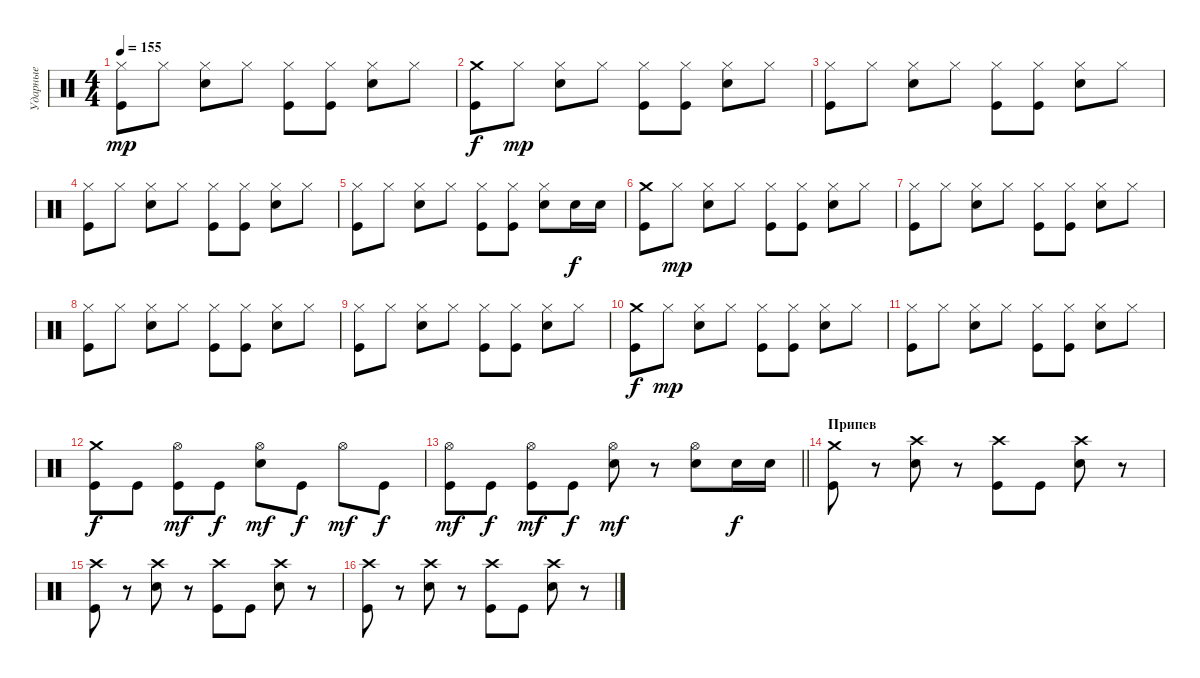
\track ("Ударные" "Ударные") {instrument percussion}
\staff {score}
\articulation defaults
\ts (4 4)
\tempo 155
\clef neutral
\ks c
("Hi-Hat (closed)" "Kick (hit)").8{dy mp} "Hi-Hat (closed)".8 ("Hi-Hat (closed)" "Electric Snare (hit)").8 "Hi-Hat (closed)".8 ("Hi-Hat (closed)" "Kick (hit)").8 ("Hi-Hat (closed)" "Kick (hit)").8 ("Hi-Hat (closed)" "Electric Snare (hit)").8 "Hi-Hat (closed)".8 |
("Crash medium (hit)" "Kick (hit)").8{dy f} "Hi-Hat (closed)".8{dy mp} ("Hi-Hat (closed)" "Electric Snare (hit)").8 "Hi-Hat (closed)".8 ("Hi-Hat (closed)" "Kick (hit)").8 ("Hi-Hat (closed)" "Kick (hit)").8 ("Hi-Hat (closed)" "Electric Snare (hit)").8 "Hi-Hat (closed)".8 |
("Hi-Hat (closed)" "Kick (hit)").8 "Hi-Hat (closed)".8 ("Hi-Hat (closed)" "Electric Snare (hit)").8 "Hi-Hat (closed)".8 ("Hi-Hat (closed)" "Kick (hit)").8 ("Hi-Hat (closed)" "Kick (hit)").8 ("Hi-Hat (closed)" "Electric Snare (hit)").8 "Hi-Hat (closed)".8 |
("Hi-Hat (closed)" "Kick (hit)").8 "Hi-Hat (closed)".8 ("Hi-Hat (closed)" "Electric Snare (hit)").8 "Hi-Hat (closed)".8 ("Hi-Hat (closed)" "Kick (hit)").8 ("Hi-Hat (closed)" "Kick (hit)").8 ("Hi-Hat (closed)" "Electric Snare (hit)").8 "Hi-Hat (closed)".8 |
("Hi-Hat (closed)" "Kick (hit)").8 "Hi-Hat (closed)".8 ("Hi-Hat (closed)" "Electric Snare (hit)").8 "Hi-Hat (closed)".8 ("Hi-Hat (closed)" "Kick (hit)").8 ("Hi-Hat (closed)" "Kick (hit)").8 ("Hi-Hat (closed)" "Electric Snare (hit)").8 "Electric Snare (hit)".16{dy f} "Electric Snare (hit)".16 |
("Crash medium (hit)" "Kick (hit)").8 "Hi-Hat (closed)".8{dy mp} ("Hi-Hat (closed)" "Electric Snare (hit)").8 "Hi-Hat (closed)".8 ("Hi-Hat (closed)" "Kick (hit)").8 ("Hi-Hat (closed)" "Kick (hit)").8 ("Hi-Hat (closed)" "Electric Snare (hit)").8 "Hi-Hat (closed)".8 |
("Hi-Hat (closed)" "Kick (hit)").8 "Hi-Hat (closed)".8 ("Hi-Hat (closed)" "Electric Snare (hit)").8 "Hi-Hat (closed)".8 ("Hi-Hat (closed)" "Kick (hit)").8 ("Hi-Hat (closed)" "Kick (hit)").8 ("Hi-Hat (closed)" "Electric Snare (hit)").8 "Hi-Hat (closed)".8 |
("Hi-Hat (closed)" "Kick (hit)").8 "Hi-Hat (closed)".8 ("Hi-Hat (closed)" "Electric Snare (hit)").8 "Hi-Hat (closed)".8 ("Hi-Hat (closed)" "Kick (hit)").8 ("Hi-Hat (closed)" "Kick (hit)").8 ("Hi-Hat (closed)" "Electric Snare (hit)").8 "Hi-Hat (closed)".8 |
("Hi-Hat (closed)" "Kick (hit)").8 "Hi-Hat (closed)".8 ("Hi-Hat (closed)" "Electric Snare (hit)").8 "Hi-Hat (closed)".8 ("Hi-Hat (closed)" "Kick (hit)").8 ("Hi-Hat (closed)" "Kick (hit)").8 ("Hi-Hat (closed)" "Electric Snare (hit)").8 "Hi-Hat (closed)".8 |
("Crash medium (hit)" "Kick (hit)").8{dy f} "Hi-Hat (closed)".8{dy mp} ("Hi-Hat (closed)" "Electric Snare (hit)").8 "Hi-Hat (closed)".8 ("Hi-Hat (closed)" "Kick (hit)").8 ("Hi-Hat (closed)" "Kick (hit)").8 ("Hi-Hat (closed)" "Electric Snare (hit)").8 "Hi-Hat (closed)".8 |
("Hi-Hat (closed)" "Kick (hit)").8 "Hi-Hat (closed)".8 ("Hi-Hat (closed)" "Electric Snare (hit)").8 "Hi-Hat (closed)".8 ("Hi-Hat (closed)" "Kick (hit)").8 ("Hi-Hat (closed)" "Kick (hit)").8 ("Hi-Hat (closed)" "Electric Snare (hit)").8 "Hi-Hat (closed)".8 |
("Crash medium (hit)" "Kick (hit)").8{dy f} "Kick (hit)".8 ("Hi-Hat (open)" "Kick (hit)").8{dy mf} "Kick (hit)".8{dy f} ("Hi-Hat (open)" "Electric Snare (hit)").8{dy mf} "Kick (hit)".8{dy f} "Hi-Hat (open)".8{dy mf} "Kick (hit)".8{dy f} |
\barLineRight lightlight
("Hi-Hat (open)" "Kick (hit)").8{dy mf} "Kick (hit)".8{dy f} ("Hi-Hat (open)" "Kick (hit)").8{dy mf} "Kick (hit)".8{dy f} ("Hi-Hat (open)" "Electric Snare (hit)").8{dy mf} r.8 ("Hi-Hat (open)" "Electric Snare (hit)").8 "Electric Snare (hit)".16{dy f} "Electric Snare (hit)".16 |
\section ("" "Припев")
("Crash medium (hit)" "Kick (hit)").8 r.8 ("Crash high (hit)" "Electric Snare (hit)").8 r.8 ("Crash high (hit)" "Kick (hit)").8 "Kick (hit)".8 ("Crash high (hit)" "Electric Snare (hit)").8 r.8 |
("Crash high (hit)" "Kick (hit)").8 r.8 ("Crash high (hit)" "Electric Snare (hit)").8 r.8 ("Crash high (hit)" "Kick (hit)").8 "Kick (hit)".8 ("Crash high (hit)" "Electric Snare (hit)").8 r.8 |
("Crash high (hit)" "Kick (hit)").8 r.8 ("Crash high (hit)" "Electric Snare (hit)").8 r.8 ("Crash high (hit)" "Kick (hit)").8 "Kick (hit)".8 ("Crash high (hit)" "Electric Snare (hit)").8 r.8
